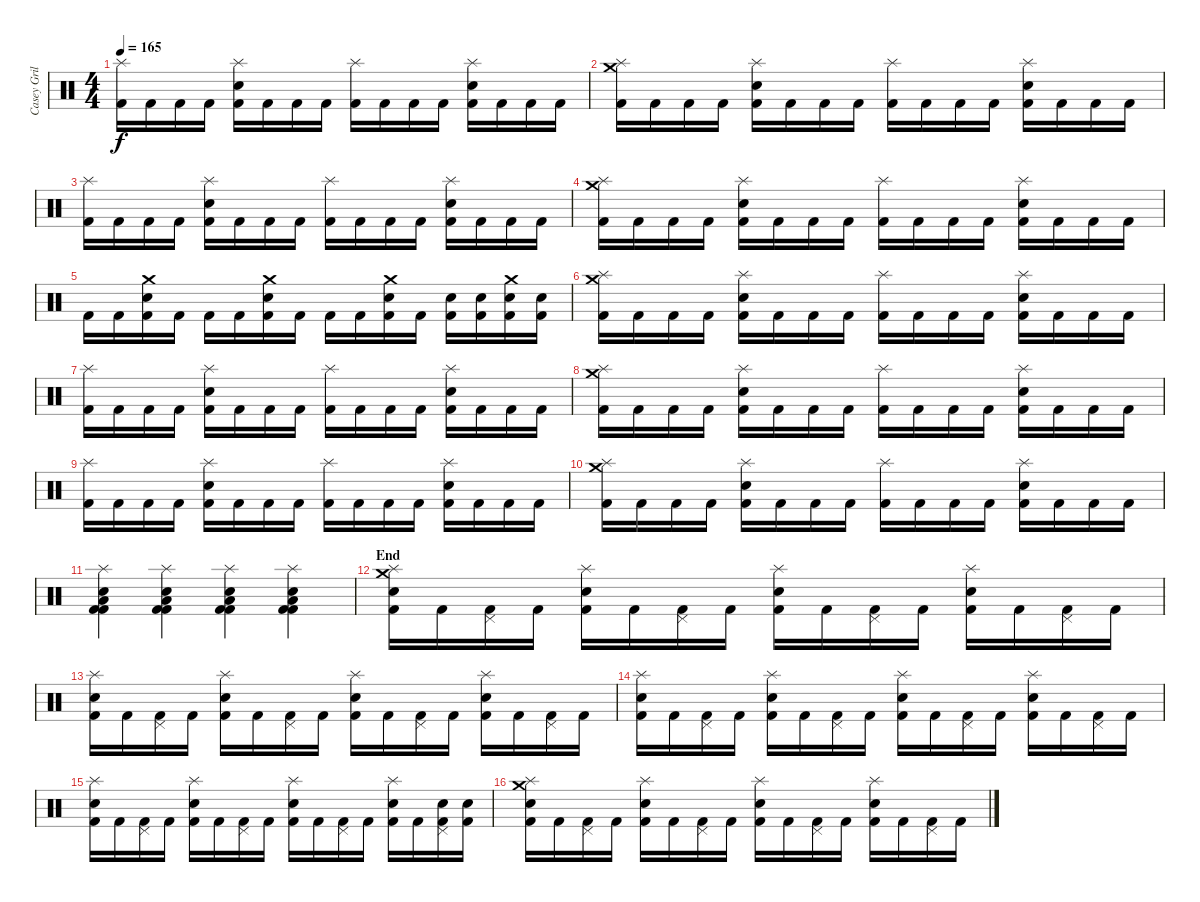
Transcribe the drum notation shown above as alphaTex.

\track ("Casey Grillo" "Casey Gril") {instrument percussion}
\staff {score}
\articulation defaults
\ts (4 4)
\tempo 165
\clef neutral
\ks c
("Splash (hit)" "Kick (hit) 2").16{dy f} "Kick (hit) 2".16 "Kick (hit) 2".16 "Kick (hit) 2".16 ("Electric Snare (hit)" "Splash (hit)" "Kick (hit) 2").16 "Kick (hit) 2".16 "Kick (hit) 2".16 "Kick (hit) 2".16 ("Splash (hit)" "Kick (hit) 2").16 "Kick (hit) 2".16 "Kick (hit) 2".16 "Kick (hit) 2".16 ("Electric Snare (hit)" "Splash (hit)" "Kick (hit) 2").16 "Kick (hit) 2".16 "Kick (hit) 2".16 "Kick (hit) 2".16 |
("Splash (hit)" "Crash medium (hit)" "Kick (hit) 2").16 "Kick (hit) 2".16 "Kick (hit) 2".16 "Kick (hit) 2".16 ("Electric Snare (hit)" "Splash (hit)" "Kick (hit) 2").16 "Kick (hit) 2".16 "Kick (hit) 2".16 "Kick (hit) 2".16 ("Splash (hit)" "Kick (hit) 2").16 "Kick (hit) 2".16 "Kick (hit) 2".16 "Kick (hit) 2".16 ("Electric Snare (hit)" "Splash (hit)" "Kick (hit) 2").16 "Kick (hit) 2".16 "Kick (hit) 2".16 "Kick (hit) 2".16 |
("Splash (hit)" "Kick (hit) 2").16 "Kick (hit) 2".16 "Kick (hit) 2".16 "Kick (hit) 2".16 ("Electric Snare (hit)" "Splash (hit)" "Kick (hit) 2").16 "Kick (hit) 2".16 "Kick (hit) 2".16 "Kick (hit) 2".16 ("Splash (hit)" "Kick (hit) 2").16 "Kick (hit) 2".16 "Kick (hit) 2".16 "Kick (hit) 2".16 ("Electric Snare (hit)" "Splash (hit)" "Kick (hit) 2").16 "Kick (hit) 2".16 "Kick (hit) 2".16 "Kick (hit) 2".16 |
("Splash (hit)" "Crash medium (hit)" "Kick (hit) 2").16 "Kick (hit) 2".16 "Kick (hit) 2".16 "Kick (hit) 2".16 ("Electric Snare (hit)" "Splash (hit)" "Kick (hit) 2").16 "Kick (hit) 2".16 "Kick (hit) 2".16 "Kick (hit) 2".16 ("Splash (hit)" "Kick (hit) 2").16 "Kick (hit) 2".16 "Kick (hit) 2".16 "Kick (hit) 2".16 ("Electric Snare (hit)" "Splash (hit)" "Kick (hit) 2").16 "Kick (hit) 2".16 "Kick (hit) 2".16 "Kick (hit) 2".16 |
"Kick (hit) 2".16 "Kick (hit) 2".16 ("Electric Snare (hit)" "Crash medium (hit)" "Kick (hit) 2").16 "Kick (hit) 2".16 "Kick (hit) 2".16 "Kick (hit) 2".16 ("Electric Snare (hit)" "Crash medium (hit)" "Kick (hit) 2").16 "Kick (hit) 2".16 "Kick (hit) 2".16 "Kick (hit) 2".16 ("Electric Snare (hit)" "Crash medium (hit)" "Kick (hit) 2").16 "Kick (hit) 2".16 ("Electric Snare (hit)" "Kick (hit) 2").16 ("Electric Snare (hit)" "Kick (hit) 2").16 ("Electric Snare (hit)" "Crash medium (hit)" "Kick (hit) 2").16 ("Electric Snare (hit)" "Kick (hit) 2").16 |
("Splash (hit)" "Crash medium (hit)" "Kick (hit) 2").16 "Kick (hit) 2".16 "Kick (hit) 2".16 "Kick (hit) 2".16 ("Electric Snare (hit)" "Splash (hit)" "Kick (hit) 2").16 "Kick (hit) 2".16 "Kick (hit) 2".16 "Kick (hit) 2".16 ("Splash (hit)" "Kick (hit) 2").16 "Kick (hit) 2".16 "Kick (hit) 2".16 "Kick (hit) 2".16 ("Electric Snare (hit)" "Splash (hit)" "Kick (hit) 2").16 "Kick (hit) 2".16 "Kick (hit) 2".16 "Kick (hit) 2".16 |
("Splash (hit)" "Kick (hit) 2").16 "Kick (hit) 2".16 "Kick (hit) 2".16 "Kick (hit) 2".16 ("Electric Snare (hit)" "Splash (hit)" "Kick (hit) 2").16 "Kick (hit) 2".16 "Kick (hit) 2".16 "Kick (hit) 2".16 ("Splash (hit)" "Kick (hit) 2").16 "Kick (hit) 2".16 "Kick (hit) 2".16 "Kick (hit) 2".16 ("Electric Snare (hit)" "Splash (hit)" "Kick (hit) 2").16 "Kick (hit) 2".16 "Kick (hit) 2".16 "Kick (hit) 2".16 |
("Splash (hit)" "Crash medium (hit)" "Kick (hit) 2").16 "Kick (hit) 2".16 "Kick (hit) 2".16 "Kick (hit) 2".16 ("Electric Snare (hit)" "Splash (hit)" "Kick (hit) 2").16 "Kick (hit) 2".16 "Kick (hit) 2".16 "Kick (hit) 2".16 ("Splash (hit)" "Kick (hit) 2").16 "Kick (hit) 2".16 "Kick (hit) 2".16 "Kick (hit) 2".16 ("Electric Snare (hit)" "Splash (hit)" "Kick (hit) 2").16 "Kick (hit) 2".16 "Kick (hit) 2".16 "Kick (hit) 2".16 |
("Splash (hit)" "Kick (hit) 2").16 "Kick (hit) 2".16 "Kick (hit) 2".16 "Kick (hit) 2".16 ("Electric Snare (hit)" "Splash (hit)" "Kick (hit) 2").16 "Kick (hit) 2".16 "Kick (hit) 2".16 "Kick (hit) 2".16 ("Splash (hit)" "Kick (hit) 2").16 "Kick (hit) 2".16 "Kick (hit) 2".16 "Kick (hit) 2".16 ("Electric Snare (hit)" "Splash (hit)" "Kick (hit) 2").16 "Kick (hit) 2".16 "Kick (hit) 2".16 "Kick (hit) 2".16 |
("Splash (hit)" "Crash medium (hit)" "Kick (hit) 2").16 "Kick (hit) 2".16 "Kick (hit) 2".16 "Kick (hit) 2".16 ("Electric Snare (hit)" "Splash (hit)" "Kick (hit) 2").16 "Kick (hit) 2".16 "Kick (hit) 2".16 "Kick (hit) 2".16 ("Splash (hit)" "Kick (hit) 2").16 "Kick (hit) 2".16 "Kick (hit) 2".16 "Kick (hit) 2".16 ("Electric Snare (hit)" "Splash (hit)" "Kick (hit) 2").16 "Kick (hit) 2".16 "Kick (hit) 2".16 "Kick (hit) 2".16 |
("Snare (hit) 2" "Splash (hit)" "Low Tom (hit)" "Kick (hit) 2" "Kick (hit) 2").4 ("Snare (hit) 2" "Splash (hit)" "Low Tom (hit)" "Kick (hit) 2" "Kick (hit) 2").4 ("Snare (hit) 2" "Splash (hit)" "Low Tom (hit)" "Kick (hit) 2" "Kick (hit) 2").4 ("Snare (hit) 2" "Splash (hit)" "Low Tom (hit)" "Kick (hit) 2" "Kick (hit) 2").4 |
\section ("" "End")
("Electric Snare (hit)" "Splash (hit)" "Crash medium (hit)" "Kick (hit) 2").16 "Kick (hit) 2".16 ("Pedal Hi-Hat (hit)" "Kick (hit) 2").16 "Kick (hit) 2".16 ("Electric Snare (hit)" "Splash (hit)" "Kick (hit) 2").16 "Kick (hit) 2".16 ("Pedal Hi-Hat (hit)" "Kick (hit) 2").16 "Kick (hit) 2".16 ("Electric Snare (hit)" "Splash (hit)" "Kick (hit) 2").16 "Kick (hit) 2".16 ("Pedal Hi-Hat (hit)" "Kick (hit) 2").16 "Kick (hit) 2".16 ("Electric Snare (hit)" "Splash (hit)" "Kick (hit) 2").16 "Kick (hit) 2".16 ("Pedal Hi-Hat (hit)" "Kick (hit) 2").16 "Kick (hit) 2".16 |
("Electric Snare (hit)" "Splash (hit)" "Kick (hit) 2").16 "Kick (hit) 2".16 ("Pedal Hi-Hat (hit)" "Kick (hit) 2").16 "Kick (hit) 2".16 ("Electric Snare (hit)" "Splash (hit)" "Kick (hit) 2").16 "Kick (hit) 2".16 ("Pedal Hi-Hat (hit)" "Kick (hit) 2").16 "Kick (hit) 2".16 ("Electric Snare (hit)" "Splash (hit)" "Kick (hit) 2").16 "Kick (hit) 2".16 ("Pedal Hi-Hat (hit)" "Kick (hit) 2").16 "Kick (hit) 2".16 ("Electric Snare (hit)" "Splash (hit)" "Kick (hit) 2").16 "Kick (hit) 2".16 ("Pedal Hi-Hat (hit)" "Kick (hit) 2").16 "Kick (hit) 2".16 |
("Electric Snare (hit)" "Splash (hit)" "Kick (hit) 2").16 "Kick (hit) 2".16 ("Pedal Hi-Hat (hit)" "Kick (hit) 2").16 "Kick (hit) 2".16 ("Electric Snare (hit)" "Splash (hit)" "Kick (hit) 2").16 "Kick (hit) 2".16 ("Pedal Hi-Hat (hit)" "Kick (hit) 2").16 "Kick (hit) 2".16 ("Electric Snare (hit)" "Splash (hit)" "Kick (hit) 2").16 "Kick (hit) 2".16 ("Pedal Hi-Hat (hit)" "Kick (hit) 2").16 "Kick (hit) 2".16 ("Electric Snare (hit)" "Splash (hit)" "Kick (hit) 2").16 "Kick (hit) 2".16 ("Pedal Hi-Hat (hit)" "Kick (hit) 2").16 "Kick (hit) 2".16 |
("Electric Snare (hit)" "Splash (hit)" "Kick (hit) 2").16 "Kick (hit) 2".16 ("Pedal Hi-Hat (hit)" "Kick (hit) 2").16 "Kick (hit) 2".16 ("Electric Snare (hit)" "Splash (hit)" "Kick (hit) 2").16 "Kick (hit) 2".16 ("Pedal Hi-Hat (hit)" "Kick (hit) 2").16 "Kick (hit) 2".16 ("Electric Snare (hit)" "Splash (hit)" "Kick (hit) 2").16 "Kick (hit) 2".16 ("Pedal Hi-Hat (hit)" "Kick (hit) 2").16 "Kick (hit) 2".16 ("Electric Snare (hit)" "Splash (hit)" "Kick (hit) 2").16 "Kick (hit) 2".16 ("Electric Snare (hit)" "Pedal Hi-Hat (hit)" "Kick (hit) 2").16 ("Electric Snare (hit)" "Kick (hit) 2").16 |
("Electric Snare (hit)" "Splash (hit)" "Crash medium (hit)" "Kick (hit) 2").16 "Kick (hit) 2".16 ("Pedal Hi-Hat (hit)" "Kick (hit) 2").16 "Kick (hit) 2".16 ("Electric Snare (hit)" "Splash (hit)" "Kick (hit) 2").16 "Kick (hit) 2".16 ("Pedal Hi-Hat (hit)" "Kick (hit) 2").16 "Kick (hit) 2".16 ("Electric Snare (hit)" "Splash (hit)" "Kick (hit) 2").16 "Kick (hit) 2".16 ("Pedal Hi-Hat (hit)" "Kick (hit) 2").16 "Kick (hit) 2".16 ("Electric Snare (hit)" "Splash (hit)" "Kick (hit) 2").16 "Kick (hit) 2".16 ("Pedal Hi-Hat (hit)" "Kick (hit) 2").16 "Kick (hit) 2".16
